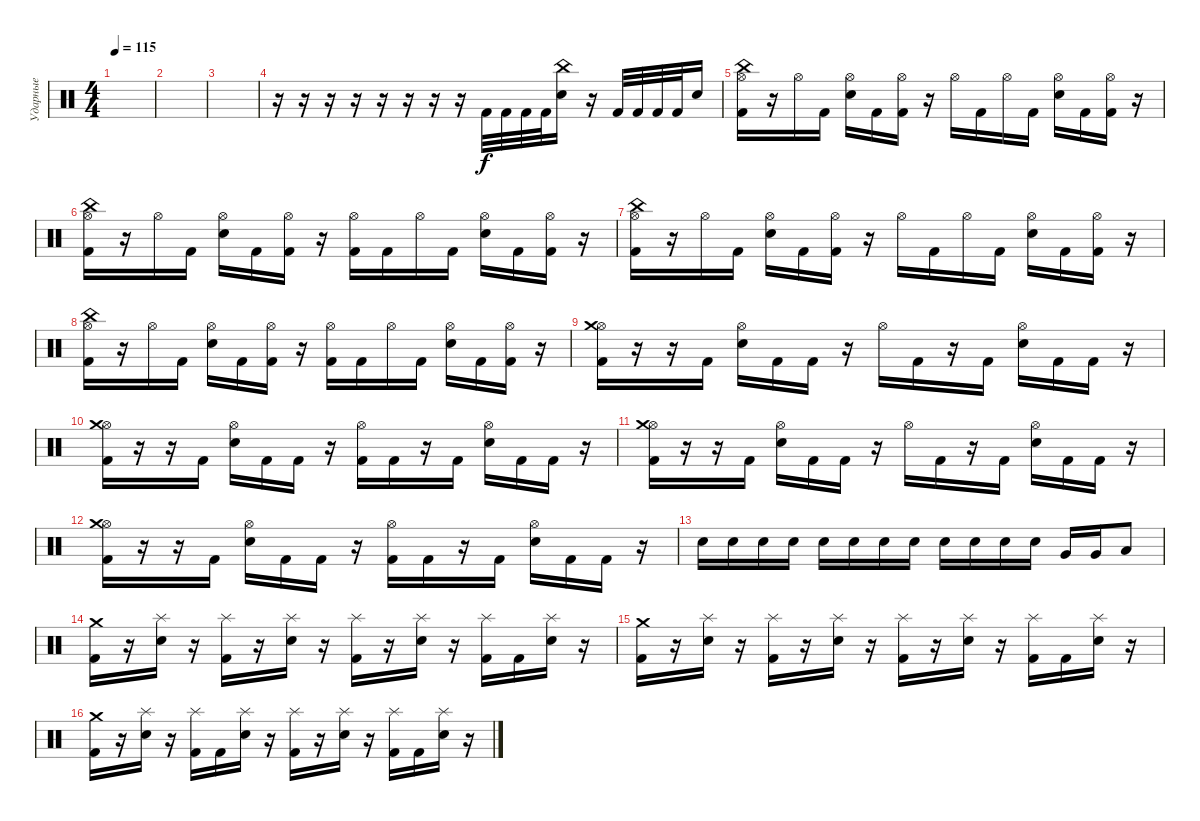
\track ("Ударные" "Ударные") {instrument percussion}
\staff {score}
\articulation defaults
\ts (4 4)
\tempo 115
\clef neutral
\ks c
|
|
|
r.16 r.16 r.16 r.16 r.16 r.16 r.16 r.16 "Kick (hit) 2".32 "Kick (hit) 2".32 "Kick (hit) 2".32 "Kick (hit) 2".32 ("Electric Snare (hit)" "China (hit)").16 r.16 "Kick (hit) 2".32 "Kick (hit) 2".32 "Kick (hit) 2".32 "Kick (hit) 2".32 "Electric Snare (hit)".16 |
("Hi-Hat (open)" "China (hit)" "Kick (hit) 2").16 r.16 "Hi-Hat (open)".16 "Kick (hit) 2".16 ("Hi-Hat (open)" "Electric Snare (hit)").16 "Kick (hit) 2".16 ("Hi-Hat (open)" "Kick (hit) 2").16 r.16 "Hi-Hat (open)".16 "Kick (hit) 2".16 "Hi-Hat (open)".16 "Kick (hit) 2".16 ("Hi-Hat (open)" "Electric Snare (hit)").16 "Kick (hit) 2".16 ("Hi-Hat (open)" "Kick (hit) 2").16 r.16 |
("Hi-Hat (open)" "China (hit)" "Kick (hit) 2").16 r.16 "Hi-Hat (open)".16 "Kick (hit) 2".16 ("Hi-Hat (open)" "Electric Snare (hit)").16 "Kick (hit) 2".16 ("Hi-Hat (open)" "Kick (hit) 2").16 r.16 ("Hi-Hat (open)" "Kick (hit) 2").16 "Kick (hit) 2".16 "Hi-Hat (open)".16 "Kick (hit) 2".16 ("Hi-Hat (open)" "Electric Snare (hit)").16 "Kick (hit) 2".16 ("Hi-Hat (open)" "Kick (hit) 2").16 r.16 |
("Hi-Hat (open)" "China (hit)" "Kick (hit) 2").16 r.16 "Hi-Hat (open)".16 "Kick (hit) 2".16 ("Hi-Hat (open)" "Electric Snare (hit)").16 "Kick (hit) 2".16 ("Hi-Hat (open)" "Kick (hit) 2").16 r.16 "Hi-Hat (open)".16 "Kick (hit) 2".16 "Hi-Hat (open)".16 "Kick (hit) 2".16 ("Hi-Hat (open)" "Electric Snare (hit)").16 "Kick (hit) 2".16 ("Hi-Hat (open)" "Kick (hit) 2").16 r.16 |
("Hi-Hat (open)" "China (hit)" "Kick (hit) 2").16 r.16 "Hi-Hat (open)".16 "Kick (hit) 2".16 ("Hi-Hat (open)" "Electric Snare (hit)").16 "Kick (hit) 2".16 ("Hi-Hat (open)" "Kick (hit) 2").16 r.16 ("Hi-Hat (open)" "Kick (hit) 2").16 "Kick (hit) 2".16 "Hi-Hat (open)".16 "Kick (hit) 2".16 ("Hi-Hat (open)" "Electric Snare (hit)").16 "Kick (hit) 2".16 ("Hi-Hat (open)" "Kick (hit) 2").16 r.16 |
("Hi-Hat (open)" "Crash medium (hit)" "Kick (hit) 2").16 r.16 r.16 "Kick (hit) 2".16 ("Hi-Hat (open)" "Electric Snare (hit)").16 "Kick (hit) 2".16 "Kick (hit) 2".16 r.16 "Hi-Hat (open)".16 "Kick (hit) 2".16 r.16 "Kick (hit) 2".16 ("Hi-Hat (open)" "Electric Snare (hit)").16 "Kick (hit) 2".16 "Kick (hit) 2".16 r.16 |
("Hi-Hat (open)" "Crash medium (hit)" "Kick (hit) 2").16 r.16 r.16 "Kick (hit) 2".16 ("Hi-Hat (open)" "Electric Snare (hit)").16 "Kick (hit) 2".16 "Kick (hit) 2".16 r.16 ("Hi-Hat (open)" "Kick (hit) 2").16 "Kick (hit) 2".16 r.16 "Kick (hit) 2".16 ("Hi-Hat (open)" "Electric Snare (hit)").16 "Kick (hit) 2".16 "Kick (hit) 2".16 r.16 |
("Hi-Hat (open)" "Crash medium (hit)" "Kick (hit) 2").16 r.16 r.16 "Kick (hit) 2".16 ("Hi-Hat (open)" "Electric Snare (hit)").16 "Kick (hit) 2".16 "Kick (hit) 2".16 r.16 "Hi-Hat (open)".16 "Kick (hit) 2".16 r.16 "Kick (hit) 2".16 ("Hi-Hat (open)" "Electric Snare (hit)").16 "Kick (hit) 2".16 "Kick (hit) 2".16 r.16 |
("Hi-Hat (open)" "Crash medium (hit)" "Kick (hit) 2").16 r.16 r.16 "Kick (hit) 2".16 ("Hi-Hat (open)" "Electric Snare (hit)").16 "Kick (hit) 2".16 "Kick (hit) 2".16 r.16 ("Hi-Hat (open)" "Kick (hit) 2").16 "Kick (hit) 2".16 r.16 "Kick (hit) 2".16 ("Hi-Hat (open)" "Electric Snare (hit)").16 "Kick (hit) 2".16 "Kick (hit) 2".16 r.16 |
"Electric Snare (hit)".16 "Electric Snare (hit)".16 "Electric Snare (hit)".16 "Electric Snare (hit)".16 "Electric Snare (hit)".16 "Electric Snare (hit)".16 "Electric Snare (hit)".16 "Electric Snare (hit)".16 "Electric Snare (hit)".16 "Electric Snare (hit)".16 "Electric Snare (hit)".16 "Electric Snare (hit)".16 "Very Low Tom (hit)".16 "Very Low Tom (hit)".16 "Low Floor Tom (hit)".8 |
("Crash medium (hit)" "Kick (hit) 2").16 r.16 ("Splash (hit)" "Electric Snare (hit)").16 r.16 ("Splash (hit)" "Kick (hit) 2").16 r.16 ("Splash (hit)" "Electric Snare (hit)").16 r.16 ("Splash (hit)" "Kick (hit) 2").16 r.16 ("Splash (hit)" "Electric Snare (hit)").16 r.16 ("Splash (hit)" "Kick (hit) 2").16 "Kick (hit) 2".16 ("Splash (hit)" "Electric Snare (hit)").16 r.16 |
("Crash medium (hit)" "Kick (hit) 2").16 r.16 ("Splash (hit)" "Electric Snare (hit)").16 r.16 ("Splash (hit)" "Kick (hit) 2").16 r.16 ("Splash (hit)" "Electric Snare (hit)").16 r.16 ("Splash (hit)" "Kick (hit) 2").16 r.16 ("Splash (hit)" "Electric Snare (hit)").16 r.16 ("Splash (hit)" "Kick (hit) 2").16 "Kick (hit) 2".16 ("Splash (hit)" "Electric Snare (hit)").16 r.16 |
("Crash medium (hit)" "Kick (hit) 2").16 r.16 ("Splash (hit)" "Electric Snare (hit)").16 r.16 ("Splash (hit)" "Kick (hit) 2").16 "Kick (hit) 2".16 ("Splash (hit)" "Electric Snare (hit)").16 r.16 ("Splash (hit)" "Kick (hit) 2").16 r.16 ("Splash (hit)" "Electric Snare (hit)").16 r.16 ("Splash (hit)" "Kick (hit) 2").16 "Kick (hit) 2".16 ("Splash (hit)" "Electric Snare (hit)").16 r.16
